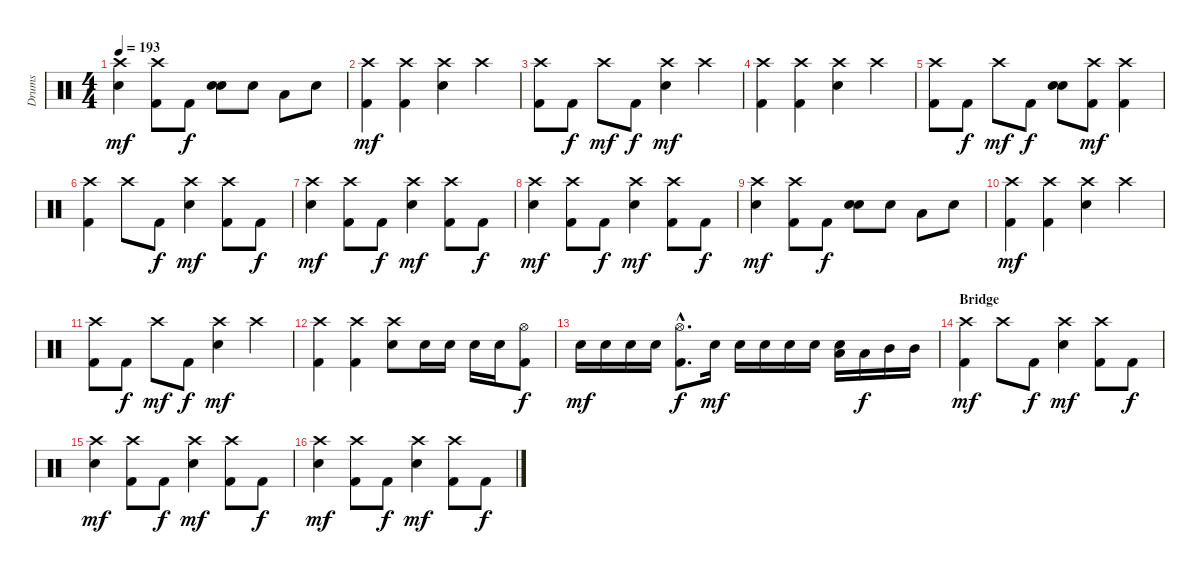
\track ("Drums" "Drums") {instrument percussion}
\staff {score}
\articulation defaults
\ts (4 4)
\tempo 193
\clef neutral
\ks c
("Crash high (hit)" "Electric Snare (hit)").4{dy mf} ("Crash high (hit)" "Kick (hit) 2").8 "Kick (hit) 2".8{dy f} ("Electric Snare (hit)" "Electric Snare (hit)").8{bd 120} "Electric Snare (hit)".8 "Low Tom (hit)".8 "Electric Snare (hit)".8 |
("Crash high (hit)" "Kick (hit) 2").4{dy mf} ("Crash high (hit)" "Kick (hit) 2").4 ("Crash high (hit)" "Electric Snare (hit)").4 "Crash high (hit)".4 |
("Crash high (hit)" "Kick (hit) 2").8 "Kick (hit) 2".8{dy f} "Crash high (hit)".8{dy mf} "Kick (hit) 2".8{dy f} ("Crash high (hit)" "Electric Snare (hit)").4{dy mf} "Crash high (hit)".4 |
("Crash high (hit)" "Kick (hit) 2").4 ("Crash high (hit)" "Kick (hit) 2").4 ("Crash high (hit)" "Electric Snare (hit)").4 "Crash high (hit)".4 |
("Crash high (hit)" "Kick (hit) 2").8 "Kick (hit) 2".8{dy f} "Crash high (hit)".8{dy mf} "Kick (hit) 2".8{dy f} ("Electric Snare (hit)" "Electric Snare (hit)").8{bd 120} ("Crash high (hit)" "Kick (hit) 2").8{dy mf} ("Crash high (hit)" "Kick (hit) 2").4 |
("Crash high (hit)" "Kick (hit) 2").4 "Crash high (hit)".8 "Kick (hit) 2".8{dy f} ("Crash high (hit)" "Electric Snare (hit)").4{dy mf} ("Crash high (hit)" "Kick (hit) 2").8 "Kick (hit) 2".8{dy f} |
("Crash high (hit)" "Electric Snare (hit)").4{dy mf} ("Crash high (hit)" "Kick (hit) 2").8 "Kick (hit) 2".8{dy f} ("Crash high (hit)" "Electric Snare (hit)").4{dy mf} ("Crash high (hit)" "Kick (hit) 2").8 "Kick (hit) 2".8{dy f} |
("Crash high (hit)" "Electric Snare (hit)").4{dy mf} ("Crash high (hit)" "Kick (hit) 2").8 "Kick (hit) 2".8{dy f} ("Crash high (hit)" "Electric Snare (hit)").4{dy mf} ("Crash high (hit)" "Kick (hit) 2").8 "Kick (hit) 2".8{dy f} |
("Crash high (hit)" "Electric Snare (hit)").4{dy mf} ("Crash high (hit)" "Kick (hit) 2").8 "Kick (hit) 2".8{dy f} ("Electric Snare (hit)" "Electric Snare (hit)").8{bd 120} "Electric Snare (hit)".8 "Low Tom (hit)".8 "Electric Snare (hit)".8 |
("Crash high (hit)" "Kick (hit) 2").4{dy mf} ("Crash high (hit)" "Kick (hit) 2").4 ("Crash high (hit)" "Electric Snare (hit)").4 "Crash high (hit)".4 |
("Crash high (hit)" "Kick (hit) 2").8 "Kick (hit) 2".8{dy f} "Crash high (hit)".8{dy mf} "Kick (hit) 2".8{dy f} ("Crash high (hit)" "Electric Snare (hit)").4{dy mf} "Crash high (hit)".4 |
("Crash high (hit)" "Kick (hit) 2").4 ("Crash high (hit)" "Kick (hit) 2").4 ("Crash high (hit)" "Electric Snare (hit)").8 "Electric Snare (hit)".16 "Electric Snare (hit)".16 "Electric Snare (hit)".16 "Electric Snare (hit)".16 ("Hi-Hat (open)" "Kick (hit) 2").8{dy f} |
"Electric Snare (hit)".16{dy mf} "Electric Snare (hit)".16 "Electric Snare (hit)".16 "Electric Snare (hit)".16 ("Hi-Hat (open)"{hac} "Kick (hit) 2"{hac}).8{d dy f} "Electric Snare (hit)".16{dy mf} "Electric Snare (hit)".16 "Electric Snare (hit)".16 "Electric Snare (hit)".16 "Electric Snare (hit)".16 ("Electric Snare (hit)" "Low Tom (hit)").16 "Low Tom (hit)".16{dy f} "Mid Tom (hit)".16 "Mid Tom (hit)".16 |
\section ("" "Bridge")
("Crash high (hit)" "Kick (hit) 2").4{dy mf} "Crash high (hit)".8 "Kick (hit) 2".8{dy f} ("Crash high (hit)" "Electric Snare (hit)").4{dy mf} ("Crash high (hit)" "Kick (hit) 2").8 "Kick (hit) 2".8{dy f} |
("Crash high (hit)" "Electric Snare (hit)").4{dy mf} ("Crash high (hit)" "Kick (hit) 2").8 "Kick (hit) 2".8{dy f} ("Crash high (hit)" "Electric Snare (hit)").4{dy mf} ("Crash high (hit)" "Kick (hit) 2").8 "Kick (hit) 2".8{dy f} |
("Crash high (hit)" "Electric Snare (hit)").4{dy mf} ("Crash high (hit)" "Kick (hit) 2").8 "Kick (hit) 2".8{dy f} ("Crash high (hit)" "Electric Snare (hit)").4{dy mf} ("Crash high (hit)" "Kick (hit) 2").8 "Kick (hit) 2".8{dy f}
